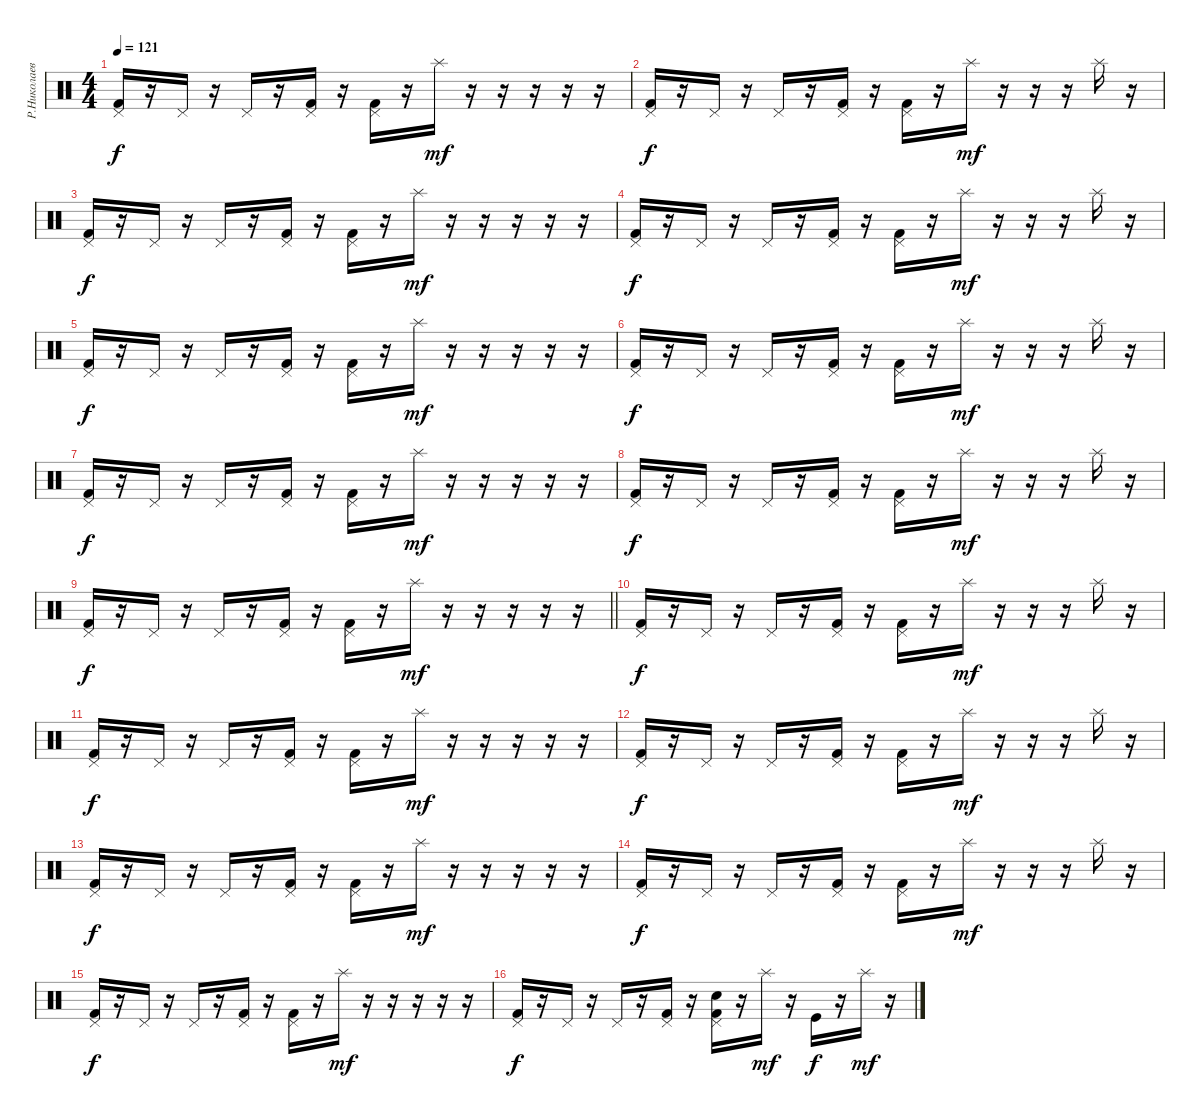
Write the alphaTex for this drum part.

\track ("Р.Николаев" "Р.Николаев") {instrument percussion}
\staff {score}
\articulation defaults
\ts (4 4)
\tempo 121
\clef neutral
\ks c
("Pedal Hi-Hat (hit)" "Kick (hit) 2").16{dy f} r.16 "Pedal Hi-Hat (hit)".16 r.16 "Pedal Hi-Hat (hit)".16 r.16 ("Pedal Hi-Hat (hit)" "Kick (hit) 2").16 r.16 ("Pedal Hi-Hat (hit)" "Kick (hit) 2").16 r.16 "Splash (hit)".16{dy mf} r.16 r.16 r.16 r.16 r.16 |
("Pedal Hi-Hat (hit)" "Kick (hit) 2").16{dy f} r.16 "Pedal Hi-Hat (hit)".16 r.16 "Pedal Hi-Hat (hit)".16 r.16 ("Pedal Hi-Hat (hit)" "Kick (hit) 2").16 r.16 ("Pedal Hi-Hat (hit)" "Kick (hit) 2").16 r.16 "Splash (hit)".16{dy mf} r.16 r.16 r.16 "Splash (hit)".16 r.16 |
("Pedal Hi-Hat (hit)" "Kick (hit) 2").16{dy f} r.16 "Pedal Hi-Hat (hit)".16 r.16 "Pedal Hi-Hat (hit)".16 r.16 ("Pedal Hi-Hat (hit)" "Kick (hit) 2").16 r.16 ("Pedal Hi-Hat (hit)" "Kick (hit) 2").16 r.16 "Splash (hit)".16{dy mf} r.16 r.16 r.16 r.16 r.16 |
("Pedal Hi-Hat (hit)" "Kick (hit) 2").16{dy f} r.16 "Pedal Hi-Hat (hit)".16 r.16 "Pedal Hi-Hat (hit)".16 r.16 ("Pedal Hi-Hat (hit)" "Kick (hit) 2").16 r.16 ("Pedal Hi-Hat (hit)" "Kick (hit) 2").16 r.16 "Splash (hit)".16{dy mf} r.16 r.16 r.16 "Splash (hit)".16 r.16 |
("Pedal Hi-Hat (hit)" "Kick (hit) 2").16{dy f} r.16 "Pedal Hi-Hat (hit)".16 r.16 "Pedal Hi-Hat (hit)".16 r.16 ("Pedal Hi-Hat (hit)" "Kick (hit) 2").16 r.16 ("Pedal Hi-Hat (hit)" "Kick (hit) 2").16 r.16 "Splash (hit)".16{dy mf} r.16 r.16 r.16 r.16 r.16 |
("Pedal Hi-Hat (hit)" "Kick (hit) 2").16{dy f} r.16 "Pedal Hi-Hat (hit)".16 r.16 "Pedal Hi-Hat (hit)".16 r.16 ("Pedal Hi-Hat (hit)" "Kick (hit) 2").16 r.16 ("Pedal Hi-Hat (hit)" "Kick (hit) 2").16 r.16 "Splash (hit)".16{dy mf} r.16 r.16 r.16 "Splash (hit)".16 r.16 |
("Pedal Hi-Hat (hit)" "Kick (hit) 2").16{dy f} r.16 "Pedal Hi-Hat (hit)".16 r.16 "Pedal Hi-Hat (hit)".16 r.16 ("Pedal Hi-Hat (hit)" "Kick (hit) 2").16 r.16 ("Pedal Hi-Hat (hit)" "Kick (hit) 2").16 r.16 "Splash (hit)".16{dy mf} r.16 r.16 r.16 r.16 r.16 |
("Pedal Hi-Hat (hit)" "Kick (hit) 2").16{dy f} r.16 "Pedal Hi-Hat (hit)".16 r.16 "Pedal Hi-Hat (hit)".16 r.16 ("Pedal Hi-Hat (hit)" "Kick (hit) 2").16 r.16 ("Pedal Hi-Hat (hit)" "Kick (hit) 2").16 r.16 "Splash (hit)".16{dy mf} r.16 r.16 r.16 "Splash (hit)".16 r.16 |
\barLineRight lightlight
("Pedal Hi-Hat (hit)" "Kick (hit) 2").16{dy f} r.16 "Pedal Hi-Hat (hit)".16 r.16 "Pedal Hi-Hat (hit)".16 r.16 ("Pedal Hi-Hat (hit)" "Kick (hit) 2").16 r.16 ("Pedal Hi-Hat (hit)" "Kick (hit) 2").16 r.16 "Splash (hit)".16{dy mf} r.16 r.16 r.16 r.16 r.16 |
("Pedal Hi-Hat (hit)" "Kick (hit) 2").16{dy f} r.16 "Pedal Hi-Hat (hit)".16 r.16 "Pedal Hi-Hat (hit)".16 r.16 ("Pedal Hi-Hat (hit)" "Kick (hit) 2").16 r.16 ("Pedal Hi-Hat (hit)" "Kick (hit) 2").16 r.16 "Splash (hit)".16{dy mf} r.16 r.16 r.16 "Splash (hit)".16 r.16 |
("Pedal Hi-Hat (hit)" "Kick (hit) 2").16{dy f} r.16 "Pedal Hi-Hat (hit)".16 r.16 "Pedal Hi-Hat (hit)".16 r.16 ("Pedal Hi-Hat (hit)" "Kick (hit) 2").16 r.16 ("Pedal Hi-Hat (hit)" "Kick (hit) 2").16 r.16 "Splash (hit)".16{dy mf} r.16 r.16 r.16 r.16 r.16 |
("Pedal Hi-Hat (hit)" "Kick (hit) 2").16{dy f} r.16 "Pedal Hi-Hat (hit)".16 r.16 "Pedal Hi-Hat (hit)".16 r.16 ("Pedal Hi-Hat (hit)" "Kick (hit) 2").16 r.16 ("Pedal Hi-Hat (hit)" "Kick (hit) 2").16 r.16 "Splash (hit)".16{dy mf} r.16 r.16 r.16 "Splash (hit)".16 r.16 |
("Pedal Hi-Hat (hit)" "Kick (hit) 2").16{dy f} r.16 "Pedal Hi-Hat (hit)".16 r.16 "Pedal Hi-Hat (hit)".16 r.16 ("Pedal Hi-Hat (hit)" "Kick (hit) 2").16 r.16 ("Pedal Hi-Hat (hit)" "Kick (hit) 2").16 r.16 "Splash (hit)".16{dy mf} r.16 r.16 r.16 r.16 r.16 |
("Pedal Hi-Hat (hit)" "Kick (hit) 2").16{dy f} r.16 "Pedal Hi-Hat (hit)".16 r.16 "Pedal Hi-Hat (hit)".16 r.16 ("Pedal Hi-Hat (hit)" "Kick (hit) 2").16 r.16 ("Pedal Hi-Hat (hit)" "Kick (hit) 2").16 r.16 "Splash (hit)".16{dy mf} r.16 r.16 r.16 "Splash (hit)".16 r.16 |
("Pedal Hi-Hat (hit)" "Kick (hit) 2").16{dy f} r.16 "Pedal Hi-Hat (hit)".16 r.16 "Pedal Hi-Hat (hit)".16 r.16 ("Pedal Hi-Hat (hit)" "Kick (hit) 2").16 r.16 ("Pedal Hi-Hat (hit)" "Kick (hit) 2").16 r.16 "Splash (hit)".16{dy mf} r.16 r.16 r.16 r.16 r.16 |
("Pedal Hi-Hat (hit)" "Kick (hit) 2").16{dy f} r.16 "Pedal Hi-Hat (hit)".16 r.16 "Pedal Hi-Hat (hit)".16 r.16 ("Pedal Hi-Hat (hit)" "Kick (hit) 2").16 r.16 ("Pedal Hi-Hat (hit)" "Snare (hit) 2" "Kick (hit) 2").16 r.16 "Splash (hit)".16{dy mf} r.16 "Kick (hit)".16{dy f} r.16 "Splash (hit)".16{dy mf} r.16
